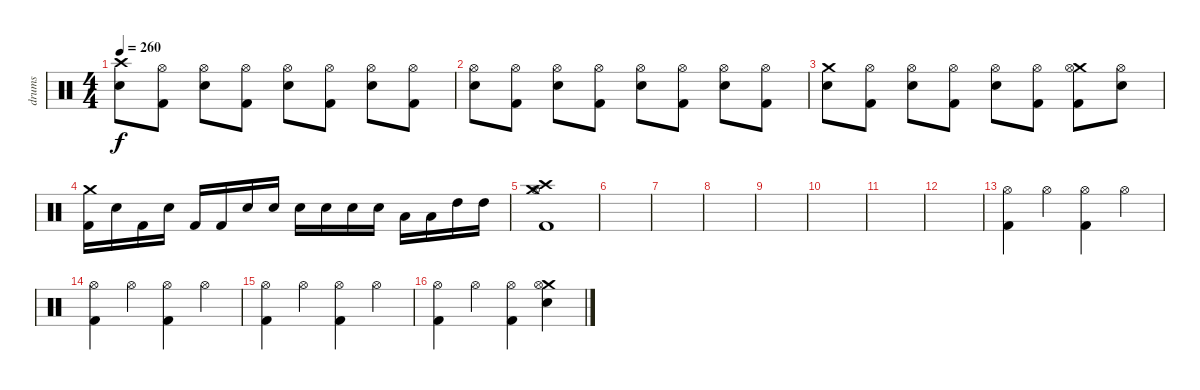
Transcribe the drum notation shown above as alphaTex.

\track ("drums" "drums") {instrument percussion}
\staff {score}
\articulation defaults
\ts (4 4)
\tempo 260
\clef neutral
\ks c
("Crash high (hit)" "Electric Snare (hit)").8{dy f} ("Hi-Hat (open)" "Kick (hit) 2").8 ("Hi-Hat (open)" "Electric Snare (hit)").8 ("Hi-Hat (open)" "Kick (hit) 2").8 ("Hi-Hat (open)" "Electric Snare (hit)").8 ("Hi-Hat (open)" "Kick (hit) 2").8 ("Hi-Hat (open)" "Electric Snare (hit)").8 ("Hi-Hat (open)" "Kick (hit) 2").8 |
("Hi-Hat (open)" "Electric Snare (hit)").8 ("Hi-Hat (open)" "Kick (hit) 2").8 ("Hi-Hat (open)" "Electric Snare (hit)").8 ("Hi-Hat (open)" "Kick (hit) 2").8 ("Hi-Hat (open)" "Electric Snare (hit)").8 ("Hi-Hat (open)" "Kick (hit) 2").8 ("Hi-Hat (open)" "Electric Snare (hit)").8 ("Hi-Hat (open)" "Kick (hit) 2").8 |
("Crash medium (hit)" "Electric Snare (hit)").8 ("Hi-Hat (open)" "Kick (hit) 2").8 ("Hi-Hat (open)" "Electric Snare (hit)").8 ("Hi-Hat (open)" "Kick (hit) 2").8 ("Hi-Hat (open)" "Electric Snare (hit)").8 ("Hi-Hat (open)" "Kick (hit) 2").8 ("Crash medium (hit)" "Hi-Hat (open)" "Kick (hit) 2").8 ("Hi-Hat (open)" "Electric Snare (hit)").8 |
("Crash medium (hit)" "Kick (hit) 2").16 "Electric Snare (hit)".16 "Kick (hit) 2".16 "Electric Snare (hit)".16 "Kick (hit) 2".16 "Kick (hit) 2".16 "Electric Snare (hit)".16 "Electric Snare (hit)".16 "Electric Snare (hit)".16 "Electric Snare (hit)".16 "Electric Snare (hit)".16 "Electric Snare (hit)".16 "Low Tom (hit)".16 "Low Tom (hit)".16 "High Tom (hit)".16 "High Tom (hit)".16 |
("Crash medium (hit)" "Crash high (hit)" "Hi-Hat (open)" "Kick (hit) 2").1 |
|
|
|
|
|
|
|
("Hi-Hat (open)" "Kick (hit) 2").4 "Hi-Hat (open)".4 ("Hi-Hat (open)" "Kick (hit) 2").4 "Hi-Hat (open)".4 |
("Hi-Hat (open)" "Kick (hit) 2").4 "Hi-Hat (open)".4 ("Hi-Hat (open)" "Kick (hit) 2").4 "Hi-Hat (open)".4 |
("Hi-Hat (open)" "Kick (hit) 2").4 "Hi-Hat (open)".4 ("Hi-Hat (open)" "Kick (hit) 2").4 "Hi-Hat (open)".4 |
("Hi-Hat (open)" "Kick (hit) 2").4 "Hi-Hat (open)".4 ("Hi-Hat (open)" "Kick (hit) 2").4 ("Crash medium (hit)" "Hi-Hat (open)" "Electric Snare (hit)").4
